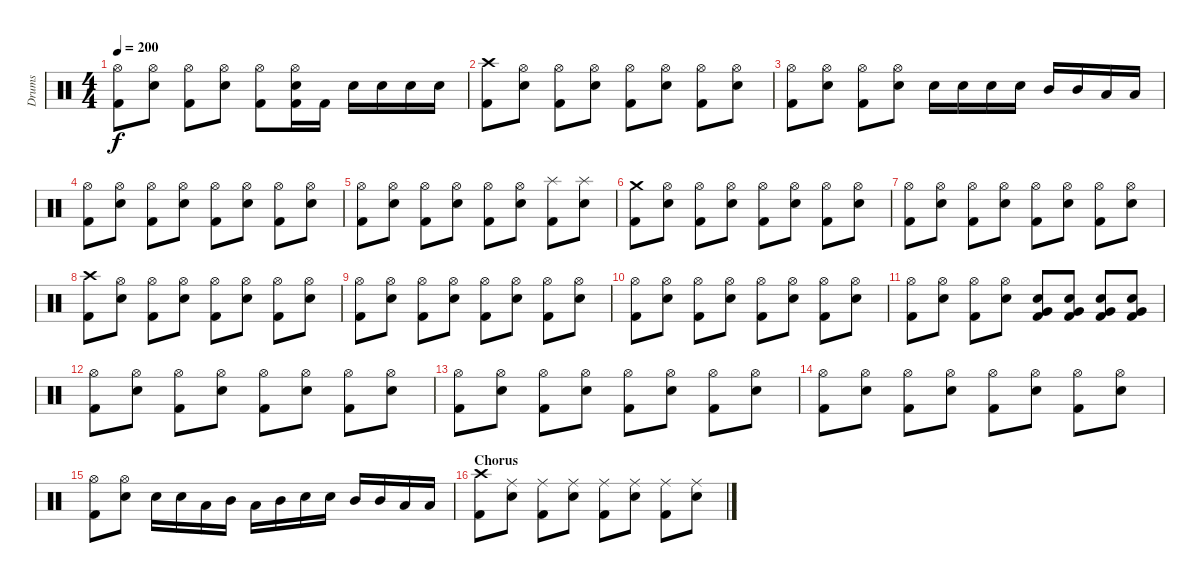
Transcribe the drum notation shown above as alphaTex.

\track ("Drums" "Drums") {instrument percussion}
\staff {score}
\articulation defaults
\ts (4 4)
\tempo 200
\clef neutral
\ks c
("Hi-Hat (open)" "Kick (hit) 2").8{dy f} ("Hi-Hat (open)" "Snare (hit) 2").8 ("Hi-Hat (open)" "Kick (hit) 2").8 ("Hi-Hat (open)" "Snare (hit) 2").8 ("Hi-Hat (open)" "Kick (hit) 2").8 ("Hi-Hat (open)" "Snare (hit) 2" "Kick (hit) 2").16 "Kick (hit) 2".16 "Snare (hit) 2".16 "Snare (hit) 2".16 "Snare (hit) 2".16 "Snare (hit) 2".16 |
("Crash high (hit)" "Kick (hit) 2").8 ("Hi-Hat (open)" "Snare (hit) 2").8 ("Hi-Hat (open)" "Kick (hit) 2").8 ("Hi-Hat (open)" "Snare (hit) 2").8 ("Hi-Hat (open)" "Kick (hit) 2").8 ("Hi-Hat (open)" "Snare (hit) 2").8 ("Hi-Hat (open)" "Kick (hit) 2").8 ("Hi-Hat (open)" "Snare (hit) 2").8 |
("Hi-Hat (open)" "Kick (hit) 2").8 ("Hi-Hat (open)" "Snare (hit) 2").8 ("Hi-Hat (open)" "Kick (hit) 2").8 ("Hi-Hat (open)" "Snare (hit) 2").8 "Snare (hit) 2".16 "Snare (hit) 2".16 "Snare (hit) 2".16 "Snare (hit) 2".16 "Mid Tom (hit)".16 "Mid Tom (hit)".16 "Low Tom (hit)".16 "Low Tom (hit)".16 |
("Hi-Hat (open)" "Kick (hit) 2").8 ("Hi-Hat (open)" "Snare (hit) 2").8 ("Hi-Hat (open)" "Kick (hit) 2").8 ("Hi-Hat (open)" "Snare (hit) 2").8 ("Hi-Hat (open)" "Kick (hit) 2").8 ("Hi-Hat (open)" "Snare (hit) 2").8 ("Hi-Hat (open)" "Kick (hit) 2").8 ("Hi-Hat (open)" "Snare (hit) 2").8 |
("Hi-Hat (open)" "Kick (hit) 2").8 ("Hi-Hat (open)" "Snare (hit) 2").8 ("Hi-Hat (open)" "Kick (hit) 2").8 ("Hi-Hat (open)" "Snare (hit) 2").8 ("Hi-Hat (open)" "Kick (hit) 2").8 ("Hi-Hat (open)" "Snare (hit) 2").8 ("Splash (hit)" "Kick (hit) 2").8 ("Splash (hit)" "Snare (hit) 2").8 |
("Crash medium (hit)" "Kick (hit) 2").8 ("Hi-Hat (open)" "Snare (hit) 2").8 ("Hi-Hat (open)" "Kick (hit) 2").8 ("Hi-Hat (open)" "Snare (hit) 2").8 ("Hi-Hat (open)" "Kick (hit) 2").8 ("Hi-Hat (open)" "Snare (hit) 2").8 ("Hi-Hat (open)" "Kick (hit) 2").8 ("Hi-Hat (open)" "Snare (hit) 2").8 |
("Hi-Hat (open)" "Kick (hit) 2").8 ("Hi-Hat (open)" "Snare (hit) 2").8 ("Hi-Hat (open)" "Kick (hit) 2").8 ("Hi-Hat (open)" "Snare (hit) 2").8 ("Hi-Hat (open)" "Kick (hit) 2").8 ("Hi-Hat (open)" "Snare (hit) 2").8 ("Hi-Hat (open)" "Kick (hit) 2").8 ("Hi-Hat (open)" "Snare (hit) 2").8 |
("Crash high (hit)" "Kick (hit) 2").8 ("Hi-Hat (open)" "Snare (hit) 2").8 ("Hi-Hat (open)" "Kick (hit) 2").8 ("Hi-Hat (open)" "Snare (hit) 2").8 ("Hi-Hat (open)" "Kick (hit) 2").8 ("Hi-Hat (open)" "Snare (hit) 2").8 ("Hi-Hat (open)" "Kick (hit) 2").8 ("Hi-Hat (open)" "Snare (hit) 2").8 |
("Hi-Hat (open)" "Kick (hit) 2").8 ("Hi-Hat (open)" "Snare (hit) 2").8 ("Hi-Hat (open)" "Kick (hit) 2").8 ("Hi-Hat (open)" "Snare (hit) 2").8 ("Hi-Hat (open)" "Kick (hit) 2").8 ("Hi-Hat (open)" "Snare (hit) 2").8 ("Hi-Hat (open)" "Kick (hit) 2").8 ("Hi-Hat (open)" "Snare (hit) 2").8 |
("Hi-Hat (open)" "Kick (hit) 2").8 ("Hi-Hat (open)" "Snare (hit) 2").8 ("Hi-Hat (open)" "Kick (hit) 2").8 ("Hi-Hat (open)" "Snare (hit) 2").8 ("Hi-Hat (open)" "Kick (hit) 2").8 ("Hi-Hat (open)" "Snare (hit) 2").8 ("Hi-Hat (open)" "Kick (hit) 2").8 ("Hi-Hat (open)" "Snare (hit) 2").8 |
("Hi-Hat (open)" "Kick (hit) 2").8 ("Hi-Hat (open)" "Snare (hit) 2").8 ("Hi-Hat (open)" "Kick (hit) 2").8 ("Hi-Hat (open)" "Snare (hit) 2").8 ("Very Low Tom (hit)" "Snare (hit) 2" "Kick (hit) 2").8 ("Very Low Tom (hit)" "Snare (hit) 2" "Kick (hit) 2").8 ("Very Low Tom (hit)" "Snare (hit) 2" "Kick (hit) 2").8 ("Very Low Tom (hit)" "Snare (hit) 2" "Kick (hit) 2").8 |
("Hi-Hat (open)" "Kick (hit) 2").8 ("Hi-Hat (open)" "Snare (hit) 2").8 ("Hi-Hat (open)" "Kick (hit) 2").8 ("Hi-Hat (open)" "Snare (hit) 2").8 ("Hi-Hat (open)" "Kick (hit) 2").8 ("Hi-Hat (open)" "Snare (hit) 2").8 ("Hi-Hat (open)" "Kick (hit) 2").8 ("Hi-Hat (open)" "Snare (hit) 2").8 |
("Hi-Hat (open)" "Kick (hit) 2").8 ("Hi-Hat (open)" "Snare (hit) 2").8 ("Hi-Hat (open)" "Kick (hit) 2").8 ("Hi-Hat (open)" "Snare (hit) 2").8 ("Hi-Hat (open)" "Kick (hit) 2").8 ("Hi-Hat (open)" "Snare (hit) 2").8 ("Hi-Hat (open)" "Kick (hit) 2").8 ("Hi-Hat (open)" "Snare (hit) 2").8 |
("Hi-Hat (open)" "Kick (hit) 2").8 ("Hi-Hat (open)" "Snare (hit) 2").8 ("Hi-Hat (open)" "Kick (hit) 2").8 ("Hi-Hat (open)" "Snare (hit) 2").8 ("Hi-Hat (open)" "Kick (hit) 2").8 ("Hi-Hat (open)" "Snare (hit) 2").8 ("Hi-Hat (open)" "Kick (hit) 2").8 ("Hi-Hat (open)" "Snare (hit) 2").8 |
("Hi-Hat (open)" "Kick (hit) 2").8 ("Hi-Hat (open)" "Snare (hit) 2").8 "Snare (hit) 2".16 "Snare (hit) 2".16 "Low Tom (hit)".16 "Mid Tom (hit)".16 "Low Tom (hit)".16 "Mid Tom (hit)".16 "Snare (hit) 2".16 "Snare (hit) 2".16 "Mid Tom (hit)".16 "Mid Tom (hit)".16 "Low Tom (hit)".16 "Low Tom (hit)".16 |
\section ("" "Chorus")
("Crash high (hit)" "Kick (hit) 2").8 ("Ride (middle)" "Snare (hit) 2").8 ("Ride (middle)" "Kick (hit) 2").8 ("Ride (middle)" "Snare (hit) 2").8 ("Ride (middle)" "Kick (hit) 2").8 ("Ride (middle)" "Snare (hit) 2").8 ("Ride (middle)" "Kick (hit) 2").8 ("Ride (middle)" "Snare (hit) 2").8
